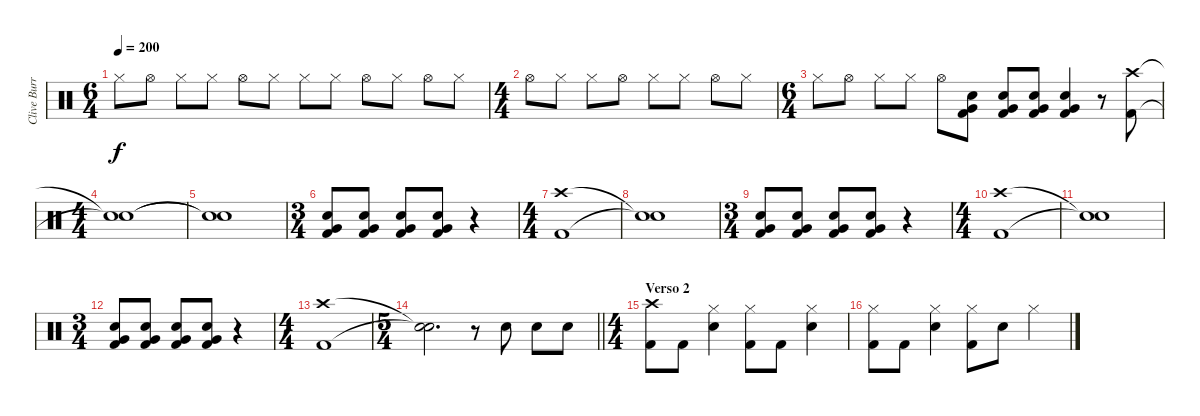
\track ("Clive Burr" "Clive Burr") {instrument percussion}
\staff {score}
\articulation defaults
\ts (6 4)
\tempo 200
\clef neutral
\ks c "Hi-Hat (closed)".8{dy f} "Hi-Hat (open)".8 "Hi-Hat (closed)".8 "Hi-Hat (closed)".8 "Hi-Hat (open)".8 "Hi-Hat (closed)".8 "Hi-Hat (closed)".8 "Hi-Hat (closed)".8 "Hi-Hat (open)".8 "Hi-Hat (closed)".8 "Hi-Hat (open)".8 "Hi-Hat (closed)".8
|
\ts (4 4)
"Hi-Hat (open)".8 "Hi-Hat (closed)".8 "Hi-Hat (closed)".8 "Hi-Hat (open)".8 "Hi-Hat (closed)".8 "Hi-Hat (closed)".8 "Hi-Hat (open)".8 "Hi-Hat (closed)".8 |
\ts (6 4)
"Hi-Hat (closed)".8 "Hi-Hat (open)".8 "Hi-Hat (closed)".8 "Hi-Hat (closed)".8 "Hi-Hat (open)".8 ("Very Low Tom (hit)" "Snare (hit) 2" "Kick (hit) 2").8 ("Very Low Tom (hit)" "Snare (hit) 2" "Kick (hit) 2").8 ("Very Low Tom (hit)" "Snare (hit) 2" "Kick (hit) 2").8 ("Very Low Tom (hit)" "Snare (hit) 2" "Kick (hit) 2").4 r.8 ("Crash high (hit)" "Kick (hit) 2").8 |
\ts (4 4)
("Snare (hit)"{t} "Snare (hit)"{t}).1 |
("Snare (hit)"{t} "Snare (hit)"{t}).1 |
\ts (3 4)
("Very Low Tom (hit)" "Snare (hit) 2" "Kick (hit) 2").8 ("Very Low Tom (hit)" "Snare (hit) 2" "Kick (hit) 2").8 ("Very Low Tom (hit)" "Snare (hit) 2" "Kick (hit) 2").8 ("Very Low Tom (hit)" "Snare (hit) 2" "Kick (hit) 2").8 r.4 |
\ts (4 4)
("Crash high (hit)" "Kick (hit) 2").1 |
("Snare (hit)"{t} "Snare (hit)"{t}).1 |
\ts (3 4)
("Very Low Tom (hit)" "Snare (hit) 2" "Kick (hit) 2").8 ("Very Low Tom (hit)" "Snare (hit) 2" "Kick (hit) 2").8 ("Very Low Tom (hit)" "Snare (hit) 2" "Kick (hit) 2").8 ("Very Low Tom (hit)" "Snare (hit) 2" "Kick (hit) 2").8 r.4 |
\ts (4 4)
("Crash high (hit)" "Kick (hit) 2").1 |
("Snare (hit)"{t} "Snare (hit)"{t}).1 |
\ts (3 4)
("Very Low Tom (hit)" "Snare (hit) 2" "Kick (hit) 2").8 ("Very Low Tom (hit)" "Snare (hit) 2" "Kick (hit) 2").8 ("Very Low Tom (hit)" "Snare (hit) 2" "Kick (hit) 2").8 ("Very Low Tom (hit)" "Snare (hit) 2" "Kick (hit) 2").8 r.4 |
\ts (4 4)
("Crash high (hit)" "Kick (hit) 2").1 |
\ts (5 4)
\barLineRight lightlight
("Snare (hit)"{t} "Snare (hit)"{t}).2{d} r.8 "Snare (hit) 2".8 "Snare (hit) 2".8 "Snare (hit) 2".8 |
\ts (4 4)
\section ("" "Verso 2")
("Crash high (hit)" "Kick (hit) 2").8 "Kick (hit) 2".8 ("Hi-Hat (closed)" "Snare (hit) 2").4 ("Hi-Hat (closed)" "Kick (hit) 2").8 "Kick (hit) 2".8 ("Hi-Hat (closed)" "Snare (hit) 2").4 |
("Hi-Hat (closed)" "Kick (hit) 2").8 "Kick (hit) 2".8 ("Hi-Hat (closed)" "Snare (hit) 2").4 ("Hi-Hat (closed)" "Kick (hit) 2").8 "Snare (hit) 2".8 "Hi-Hat (closed)".4
